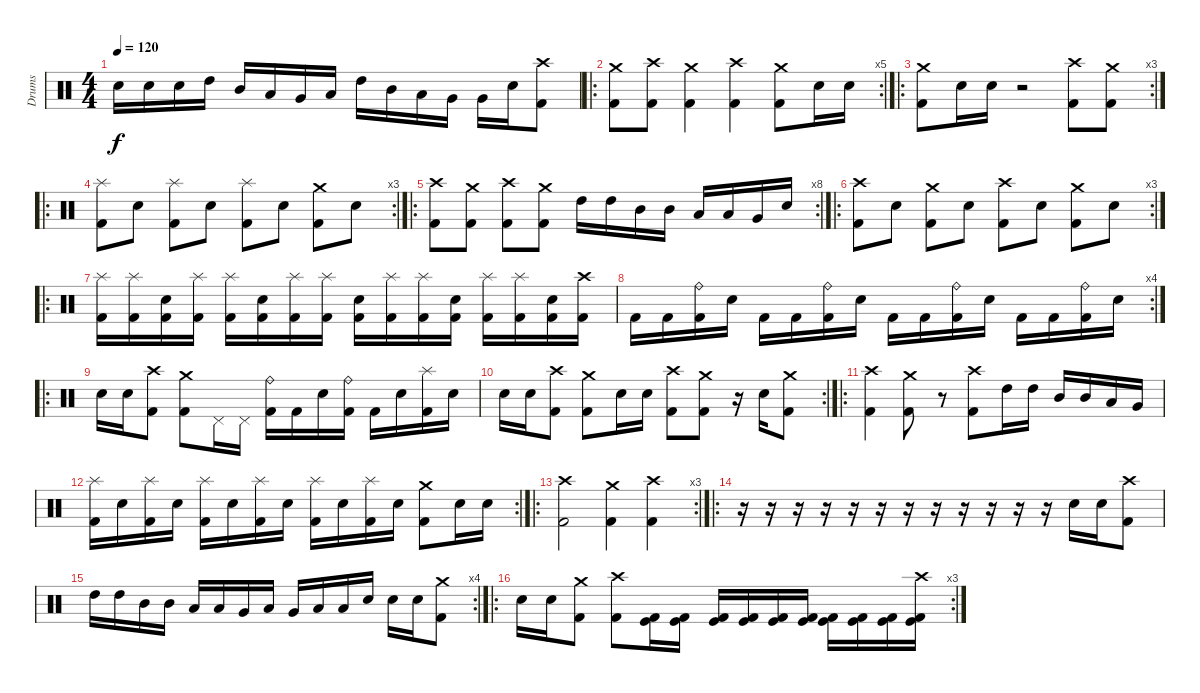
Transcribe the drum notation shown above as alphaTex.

\track ("Drums" "Drums") {instrument percussion}
\staff {score}
\articulation defaults
\ts (4 4)
\tempo 120
\clef neutral
\ks c "Electric Snare (hit)".16{dy f} "Electric Snare (hit)".16 "Electric Snare (hit)".16 "High Tom (hit)".16 "Mid Tom (hit)".16 "Low Tom (hit)".16 "Very Low Tom (hit)".16 "Low Floor Tom (hit)".16 "High Tom (hit)".16 "Mid Tom (hit)".16 "Low Tom (hit)".16 "Very Low Tom (hit)".16 "Very Low Tom (hit)".16 "Electric Snare (hit)".16
("Crash high (hit)" "Kick (hit) 2").8 |
\ro
\rc 5
("Crash medium (hit)" "Kick (hit) 2").8 ("Crash high (hit)" "Kick (hit) 2").8 ("Crash medium (hit)" "Kick (hit) 2").4 ("Crash high (hit)" "Kick (hit) 2").4 ("Crash medium (hit)" "Kick (hit) 2").8 "Electric Snare (hit)".16 "Electric Snare (hit)".16 |
\ro
\rc 3
("Crash medium (hit)" "Kick (hit) 2").8 "Electric Snare (hit)".16 "Electric Snare (hit)".16 r.2 ("Crash high (hit)" "Kick (hit) 2").8 ("Crash medium (hit)" "Kick (hit) 2").8 |
\ro
\rc 3
("Splash (hit)" "Kick (hit) 2").8 "Electric Snare (hit)".8 ("Splash (hit)" "Kick (hit) 2").8 "Electric Snare (hit)".8 ("Splash (hit)" "Kick (hit) 2").8 "Electric Snare (hit)".8 ("Crash medium (hit)" "Kick (hit) 2").8 "Electric Snare (hit)".8 |
\ro
\rc 8
("Crash high (hit)"{pm} "Kick (hit) 2"{pm}).8 ("Crash medium (hit)"{pm} "Kick (hit) 2"{pm}).8 ("Crash high (hit)"{pm} "Kick (hit) 2"{pm}).8 ("Crash medium (hit)"{pm} "Kick (hit) 2"{pm}).8 "High Tom (hit)".16 "High Tom (hit)".16 "Mid Tom (hit)".16 "Mid Tom (hit)".16 "Low Tom (hit)".16 "Low Tom (hit)".16 "Very Low Tom (hit)".16 "Electric Snare (hit)".16 |
\ro
\rc 3
("Crash high (hit)" "Kick (hit) 2").8 "Electric Snare (hit)".8 ("Crash medium (hit)" "Kick (hit) 2").8 "Electric Snare (hit)".8 ("Crash high (hit)" "Kick (hit) 2").8 "Electric Snare (hit)".8 ("Crash medium (hit)" "Kick (hit) 2").8 "Electric Snare (hit)".8 |
\ro
("Splash (hit)" "Kick (hit) 2").16 ("Splash (hit)" "Kick (hit) 2").16 ("Electric Snare (hit)" "Kick (hit) 2").16 ("Splash (hit)" "Kick (hit) 2").16 ("Splash (hit)" "Kick (hit) 2").16 ("Electric Snare (hit)" "Kick (hit) 2").16 ("Splash (hit)" "Kick (hit) 2").16 ("Splash (hit)" "Kick (hit) 2").16 ("Electric Snare (hit)" "Kick (hit) 2").16 ("Splash (hit)" "Kick (hit) 2").16 ("Splash (hit)" "Kick (hit) 2").16 ("Electric Snare (hit)" "Kick (hit) 2").16 ("Splash (hit)" "Kick (hit) 2").16 ("Splash (hit)" "Kick (hit) 2").16 ("Electric Snare (hit)" "Kick (hit) 2").16 ("Crash high (hit)" "Kick (hit) 2").16 |
\rc 4 "Kick (hit) 2".16 "Kick (hit) 2".16
("Ride (bell)" "Kick (hit) 2").16 "Electric Snare (hit)".16 "Kick (hit) 2".16 "Kick (hit) 2".16 ("Ride (bell)" "Kick (hit) 2").16 "Electric Snare (hit)".16 "Kick (hit) 2".16 "Kick (hit) 2".16 ("Ride (bell)" "Kick (hit) 2").16 "Electric Snare (hit)".16 "Kick (hit) 2".16 "Kick (hit) 2".16 ("Ride (bell)" "Kick (hit) 2").16 "Electric Snare (hit)".16 |
\ro "Snare (hit) 2".16 "Snare (hit) 2".16
("Crash high (hit)" "Kick (hit) 2").8 ("Crash medium (hit)" "Kick (hit) 2").8 "Pedal Hi-Hat (hit)".16 "Pedal Hi-Hat (hit)".16 ("Ride (bell)" "Kick (hit) 2").16 "Kick (hit) 2".16 "Electric Snare (hit)".16 ("Ride (bell)" "Kick (hit) 2").16 "Kick (hit) 2".16 "Electric Snare (hit)".16 ("Splash (hit)" "Kick (hit) 2").16 "Electric Snare (hit)".16 |
\rc 2 "Electric Snare (hit)".16 "Electric Snare (hit)".16
("Crash high (hit)" "Kick (hit) 2").8 ("Crash medium (hit)" "Kick (hit) 2").8 "Electric Snare (hit)".16 "Electric Snare (hit)".16 ("Crash high (hit)" "Kick (hit) 2").8 ("Crash medium (hit)" "Kick (hit) 2").8 r.16 "Electric Snare (hit)".16 ("Crash medium (hit)" "Kick (hit) 2").8 |
\ro
("Crash high (hit)" "Kick (hit) 2").4 ("Crash medium (hit)" "Kick (hit) 2").8 r.8 ("Crash high (hit)" "Kick (hit) 2").8 "High Tom (hit)".16 "High Tom (hit)".16 "Mid Tom (hit)".16 "Mid Tom (hit)".16 "Low Tom (hit)".16 "Very Low Tom (hit)".16 |
\rc 2
("Splash (hit)" "Kick (hit) 2").16 "Electric Snare (hit)".16 ("Splash (hit)" "Kick (hit) 2").16 "Electric Snare (hit)".16 ("Splash (hit)" "Kick (hit) 2").16 "Electric Snare (hit)".16 ("Splash (hit)" "Kick (hit) 2").16 "Electric Snare (hit)".16 ("Splash (hit)" "Kick (hit) 2").16 "Electric Snare (hit)".16 ("Splash (hit)" "Kick (hit) 2").16 "Electric Snare (hit)".16 ("Crash medium (hit)" "Kick (hit) 2").8 "Electric Snare (hit)".16 "Electric Snare (hit)".16 |
\ro
\rc 3
("Crash high (hit)" "Kick (hit) 2").2 ("Crash medium (hit)" "Kick (hit) 2").4 ("Crash high (hit)" "Kick (hit) 2").4 |
\ro
r.16 r.16 r.16 r.16 r.16 r.16 r.16 r.16 r.16 r.16 r.16 r.16 "Electric Snare (hit)".16 "Electric Snare (hit)".16 ("Crash high (hit)" "Kick (hit) 2").8 |
\rc 4 "High Tom (hit)".16 "High Tom (hit)".16 "Mid Tom (hit)".16 "Mid Tom (hit)".16 "Low Tom (hit)".16 "Low Tom (hit)".16 "Very Low Tom (hit)".16 "Low Tom (hit)".16 "Very Low Tom (hit)".16 "Low Floor Tom (hit)".16 "Low Floor Tom (hit)".16 "Electric Snare (hit)".16 "Electric Snare (hit)".16 "Electric Snare (hit)".16
("Crash medium (hit)" "Kick (hit) 2").8 |
\ro
\rc 3 "Electric Snare (hit)".16 "Electric Snare (hit)".16
("Crash medium (hit)" "Kick (hit) 2").8 ("Crash high (hit)" "Kick (hit) 2").8 ("Kick (hit) 2" "Kick (hit)").16 ("Kick (hit) 2" "Kick (hit)").16 ("Kick (hit) 2" "Kick (hit)").16 ("Kick (hit) 2" "Kick (hit)").16 ("Kick (hit) 2" "Kick (hit)").16 ("Kick (hit) 2" "Kick (hit)").16 ("Kick (hit) 2" "Kick (hit)").16 ("Kick (hit) 2" "Kick (hit)").16 ("Kick (hit) 2" "Kick (hit)").16 ("Crash high (hit)" "Kick (hit) 2" "Kick (hit)").16
